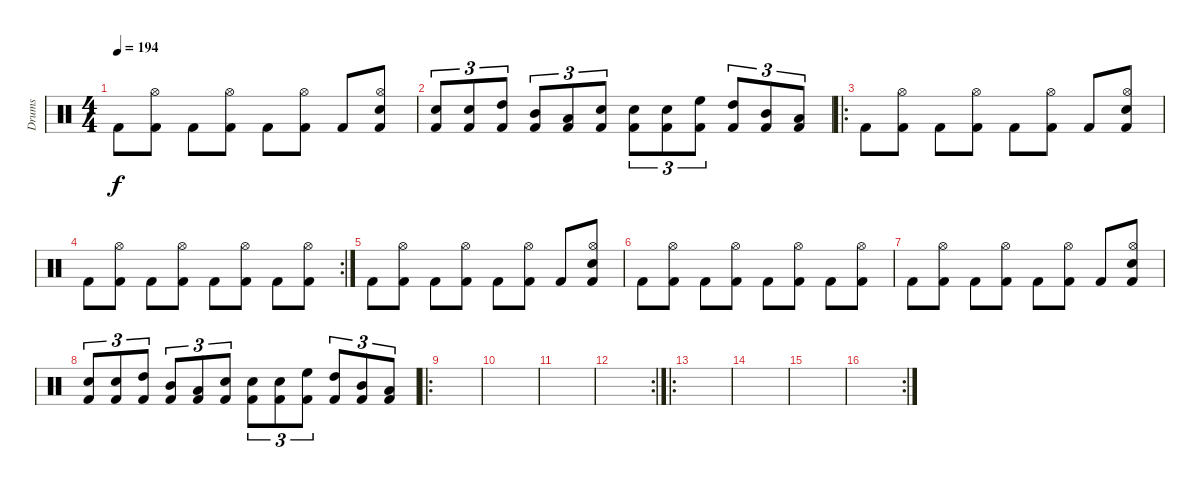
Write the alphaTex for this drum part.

\track ("Drums" "Drums") {instrument percussion}
\staff {score}
\articulation defaults
\ts (4 4)
\tempo 194
\clef neutral
\ks c "Kick (hit) 2".8{dy f}
("Hi-Hat (open)" "Kick (hit) 2").8 "Kick (hit) 2".8 ("Hi-Hat (open)" "Kick (hit) 2").8 "Kick (hit) 2".8 ("Hi-Hat (open)" "Kick (hit) 2").8 "Kick (hit) 2".8 ("Hi-Hat (open)" "Electric Snare (hit)" "Kick (hit) 2").8 |
("Electric Snare (hit)" "Kick (hit) 2").8{tu (3 2)} ("Electric Snare (hit)" "Kick (hit) 2").8{tu (3 2)} ("High Tom (hit)" "Kick (hit) 2").8{tu (3 2)} ("Mid Tom (hit)" "Kick (hit) 2").8{tu (3 2)} ("Low Tom (hit)" "Kick (hit) 2").8{tu (3 2)} ("Electric Snare (hit)" "Kick (hit) 2").8{tu (3 2)} ("Electric Snare (hit)" "Kick (hit) 2").8{tu (3 2)} ("Electric Snare (hit)" "Kick (hit) 2").8{tu (3 2)} ("High Floor Tom (hit)" "Kick (hit) 2").8{tu (3 2)} ("High Tom (hit)" "Kick (hit) 2").8{tu (3 2)} ("Mid Tom (hit)" "Kick (hit) 2").8{tu (3 2)} ("Low Tom (hit)" "Kick (hit) 2").8{tu (3 2)} |
\ro "Kick (hit) 2".8
("Hi-Hat (open)" "Kick (hit) 2").8 "Kick (hit) 2".8 ("Hi-Hat (open)" "Kick (hit) 2").8 "Kick (hit) 2".8 ("Hi-Hat (open)" "Kick (hit) 2").8 "Kick (hit) 2".8 ("Hi-Hat (open)" "Electric Snare (hit)" "Kick (hit) 2").8 |
\rc 2 "Kick (hit) 2".8
("Hi-Hat (open)" "Kick (hit) 2").8 "Kick (hit) 2".8 ("Hi-Hat (open)" "Kick (hit) 2").8 "Kick (hit) 2".8 ("Hi-Hat (open)" "Kick (hit) 2").8 "Kick (hit) 2".8 ("Hi-Hat (open)" "Kick (hit) 2").8 |
"Kick (hit) 2".8 ("Hi-Hat (open)" "Kick (hit) 2").8 "Kick (hit) 2".8 ("Hi-Hat (open)" "Kick (hit) 2").8 "Kick (hit) 2".8 ("Hi-Hat (open)" "Kick (hit) 2").8 "Kick (hit) 2".8 ("Hi-Hat (open)" "Electric Snare (hit)" "Kick (hit) 2").8 |
"Kick (hit) 2".8 ("Hi-Hat (open)" "Kick (hit) 2").8 "Kick (hit) 2".8 ("Hi-Hat (open)" "Kick (hit) 2").8 "Kick (hit) 2".8 ("Hi-Hat (open)" "Kick (hit) 2").8 "Kick (hit) 2".8 ("Hi-Hat (open)" "Kick (hit) 2").8 |
"Kick (hit) 2".8 ("Hi-Hat (open)" "Kick (hit) 2").8 "Kick (hit) 2".8 ("Hi-Hat (open)" "Kick (hit) 2").8 "Kick (hit) 2".8 ("Hi-Hat (open)" "Kick (hit) 2").8 "Kick (hit) 2".8 ("Hi-Hat (open)" "Electric Snare (hit)" "Kick (hit) 2").8 |
("Electric Snare (hit)" "Kick (hit) 2").8{tu (3 2)} ("Electric Snare (hit)" "Kick (hit) 2").8{tu (3 2)} ("High Tom (hit)" "Kick (hit) 2").8{tu (3 2)} ("Mid Tom (hit)" "Kick (hit) 2").8{tu (3 2)} ("Low Tom (hit)" "Kick (hit) 2").8{tu (3 2)} ("Electric Snare (hit)" "Kick (hit) 2").8{tu (3 2)} ("Electric Snare (hit)" "Kick (hit) 2").8{tu (3 2)} ("Electric Snare (hit)" "Kick (hit) 2").8{tu (3 2)} ("High Floor Tom (hit)" "Kick (hit) 2").8{tu (3 2)} ("High Tom (hit)" "Kick (hit) 2").8{tu (3 2)} ("Mid Tom (hit)" "Kick (hit) 2").8{tu (3 2)} ("Low Tom (hit)" "Kick (hit) 2").8{tu (3 2)} |
\ro
|
|
|
\rc 2
|
\ro
|
|
|
\rc 2
